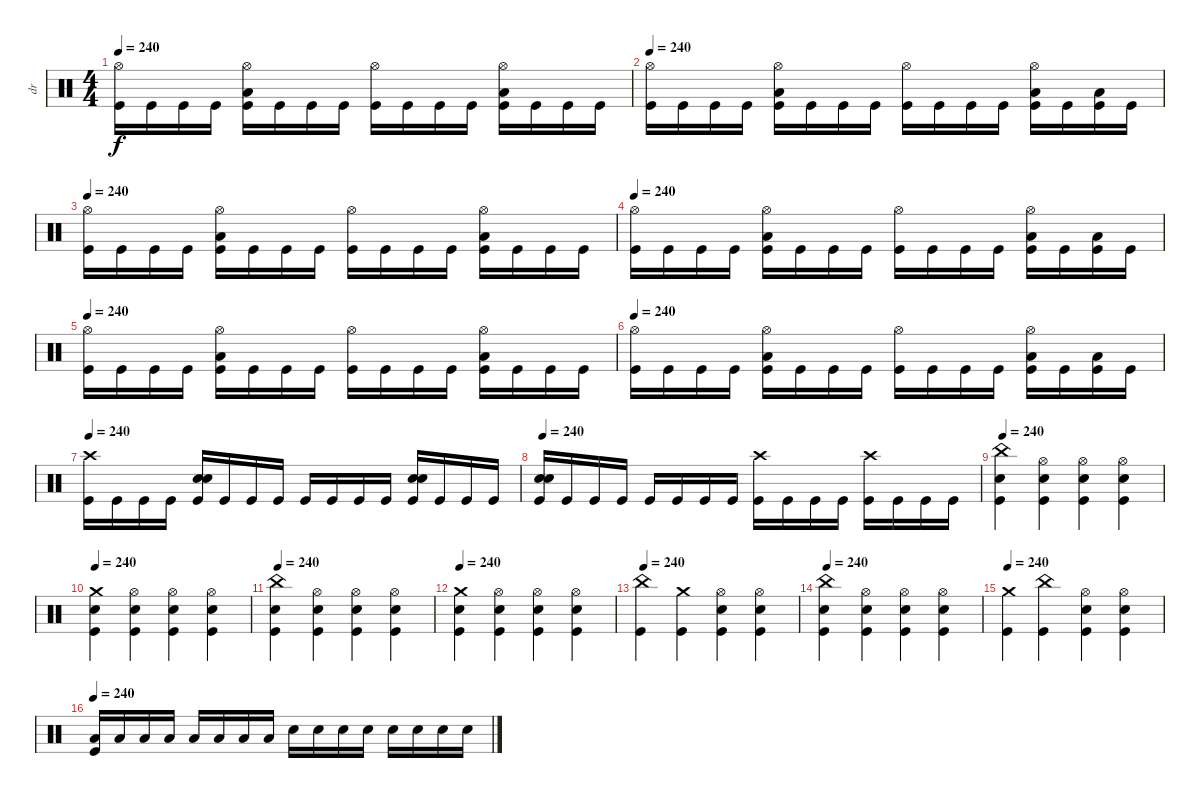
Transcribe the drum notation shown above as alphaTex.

\track ("dr" "dr") {instrument percussion}
\staff {score}
\articulation defaults
\ts (4 4)
\tempo 240
\clef neutral
\ks c
("Hi-Hat (open)" "Kick (hit)").16{dy f} "Kick (hit)".16 "Kick (hit)".16 "Kick (hit)".16 ("Hi-Hat (open)" "Low Floor Tom (hit)" "Kick (hit)").16 "Kick (hit)".16 "Kick (hit)".16 "Kick (hit)".16 ("Hi-Hat (open)" "Kick (hit)").16 "Kick (hit)".16 "Kick (hit)".16 "Kick (hit)".16 ("Hi-Hat (open)" "Low Floor Tom (hit)" "Kick (hit)").16 "Kick (hit)".16 "Kick (hit)".16 "Kick (hit)".16 |
\tempo 240
("Hi-Hat (open)" "Kick (hit)").16 "Kick (hit)".16 "Kick (hit)".16 "Kick (hit)".16 ("Hi-Hat (open)" "Low Floor Tom (hit)" "Kick (hit)").16 "Kick (hit)".16 "Kick (hit)".16 "Kick (hit)".16 ("Hi-Hat (open)" "Kick (hit)").16 "Kick (hit)".16 "Kick (hit)".16 "Kick (hit)".16 ("Hi-Hat (open)" "Low Floor Tom (hit)" "Kick (hit)").16 "Kick (hit)".16 ("Low Floor Tom (hit)" "Kick (hit)").16 "Kick (hit)".16 |
\tempo 240
("Hi-Hat (open)" "Kick (hit)").16 "Kick (hit)".16 "Kick (hit)".16 "Kick (hit)".16 ("Hi-Hat (open)" "Low Floor Tom (hit)" "Kick (hit)").16 "Kick (hit)".16 "Kick (hit)".16 "Kick (hit)".16 ("Hi-Hat (open)" "Kick (hit)").16 "Kick (hit)".16 "Kick (hit)".16 "Kick (hit)".16 ("Hi-Hat (open)" "Low Floor Tom (hit)" "Kick (hit)").16 "Kick (hit)".16 "Kick (hit)".16 "Kick (hit)".16 |
\tempo 240
("Hi-Hat (open)" "Kick (hit)").16 "Kick (hit)".16 "Kick (hit)".16 "Kick (hit)".16 ("Hi-Hat (open)" "Low Floor Tom (hit)" "Kick (hit)").16 "Kick (hit)".16 "Kick (hit)".16 "Kick (hit)".16 ("Hi-Hat (open)" "Kick (hit)").16 "Kick (hit)".16 "Kick (hit)".16 "Kick (hit)".16 ("Hi-Hat (open)" "Low Floor Tom (hit)" "Kick (hit)").16 "Kick (hit)".16 ("Low Floor Tom (hit)" "Kick (hit)").16 "Kick (hit)".16 |
\tempo 240
("Hi-Hat (open)" "Kick (hit)").16 "Kick (hit)".16 "Kick (hit)".16 "Kick (hit)".16 ("Hi-Hat (open)" "Low Floor Tom (hit)" "Kick (hit)").16 "Kick (hit)".16 "Kick (hit)".16 "Kick (hit)".16 ("Hi-Hat (open)" "Kick (hit)").16 "Kick (hit)".16 "Kick (hit)".16 "Kick (hit)".16 ("Hi-Hat (open)" "Low Floor Tom (hit)" "Kick (hit)").16 "Kick (hit)".16 "Kick (hit)".16 "Kick (hit)".16 |
\tempo 240
("Hi-Hat (open)" "Kick (hit)").16 "Kick (hit)".16 "Kick (hit)".16 "Kick (hit)".16 ("Hi-Hat (open)" "Low Floor Tom (hit)" "Kick (hit)").16 "Kick (hit)".16 "Kick (hit)".16 "Kick (hit)".16 ("Hi-Hat (open)" "Kick (hit)").16 "Kick (hit)".16 "Kick (hit)".16 "Kick (hit)".16 ("Hi-Hat (open)" "Low Floor Tom (hit)" "Kick (hit)").16 "Kick (hit)".16 ("Low Floor Tom (hit)" "Kick (hit)").16 "Kick (hit)".16 |
\tempo 240
("Crash high (hit)" "Kick (hit)").16 "Kick (hit)".16 "Kick (hit)".16 "Kick (hit)".16 ("Electric Snare (hit)" "Snare (hit) 2" "Kick (hit)").16 "Kick (hit)".16 "Kick (hit)".16 "Kick (hit)".16 "Kick (hit)".16 "Kick (hit)".16 "Kick (hit)".16 "Kick (hit)".16 ("Electric Snare (hit)" "Snare (hit) 2" "Kick (hit)").16 "Kick (hit)".16 "Kick (hit)".16 "Kick (hit)".16 |
\tempo 240
("Electric Snare (hit)" "Snare (hit) 2" "Kick (hit)").16 "Kick (hit)".16 "Kick (hit)".16 "Kick (hit)".16 "Kick (hit)".16 "Kick (hit)".16 "Kick (hit)".16 "Kick (hit)".16 ("Crash high (hit)" "Kick (hit)").16 "Kick (hit)".16 "Kick (hit)".16 "Kick (hit)".16 ("Crash high (hit)" "Kick (hit)").16 "Kick (hit)".16 "Kick (hit)".16 "Kick (hit)".16 |
\tempo 240
("China (hit)" "Snare (hit) 2" "Kick (hit)").4 ("Hi-Hat (open)" "Snare (hit) 2" "Kick (hit)").4 ("Hi-Hat (open)" "Snare (hit) 2" "Kick (hit)").4 ("Hi-Hat (open)" "Snare (hit) 2" "Kick (hit)").4 |
\tempo 240
("Crash medium (hit)" "Snare (hit) 2" "Kick (hit)").4 ("Hi-Hat (open)" "Snare (hit) 2" "Kick (hit)").4 ("Hi-Hat (open)" "Snare (hit) 2" "Kick (hit)").4 ("Hi-Hat (open)" "Snare (hit) 2" "Kick (hit)").4 |
\tempo 240
("China (hit)" "Snare (hit) 2" "Kick (hit)").4 ("Hi-Hat (open)" "Snare (hit) 2" "Kick (hit)").4 ("Hi-Hat (open)" "Snare (hit) 2" "Kick (hit)").4 ("Hi-Hat (open)" "Snare (hit) 2" "Kick (hit)").4 |
\tempo 240
("Crash medium (hit)" "Snare (hit) 2" "Kick (hit)").4 ("Hi-Hat (open)" "Snare (hit) 2" "Kick (hit)").4 ("Hi-Hat (open)" "Snare (hit) 2" "Kick (hit)").4 ("Hi-Hat (open)" "Snare (hit) 2" "Kick (hit)").4 |
\tempo 240
("China (hit)" "Kick (hit)").4 ("Crash medium (hit)" "Kick (hit)").4 ("Hi-Hat (open)" "Snare (hit) 2" "Kick (hit)").4 ("Hi-Hat (open)" "Snare (hit) 2" "Kick (hit)").4 |
\tempo 240
("China (hit)" "Snare (hit) 2" "Kick (hit)").4 ("Hi-Hat (open)" "Snare (hit) 2" "Kick (hit)").4 ("Hi-Hat (open)" "Snare (hit) 2" "Kick (hit)").4 ("Hi-Hat (open)" "Snare (hit) 2" "Kick (hit)").4 |
\tempo 240
("Crash medium (hit)" "Kick (hit)").4 ("China (hit)" "Kick (hit)").4 ("Hi-Hat (open)" "Snare (hit) 2" "Kick (hit)").4 ("Hi-Hat (open)" "Snare (hit) 2" "Kick (hit)").4 |
\tempo 240
("Low Floor Tom (hit)" "Kick (hit)").16 "Low Floor Tom (hit)".16 "Low Floor Tom (hit)".16 "Low Floor Tom (hit)".16 "Low Floor Tom (hit)".16 "Low Floor Tom (hit)".16 "Low Floor Tom (hit)".16 "Low Floor Tom (hit)".16 "Electric Snare (hit)".16 "Electric Snare (hit)".16 "Electric Snare (hit)".16 "Electric Snare (hit)".16 "Snare (hit) 2".16 "Snare (hit) 2".16 "Snare (hit) 2".16 "Snare (hit) 2".16
